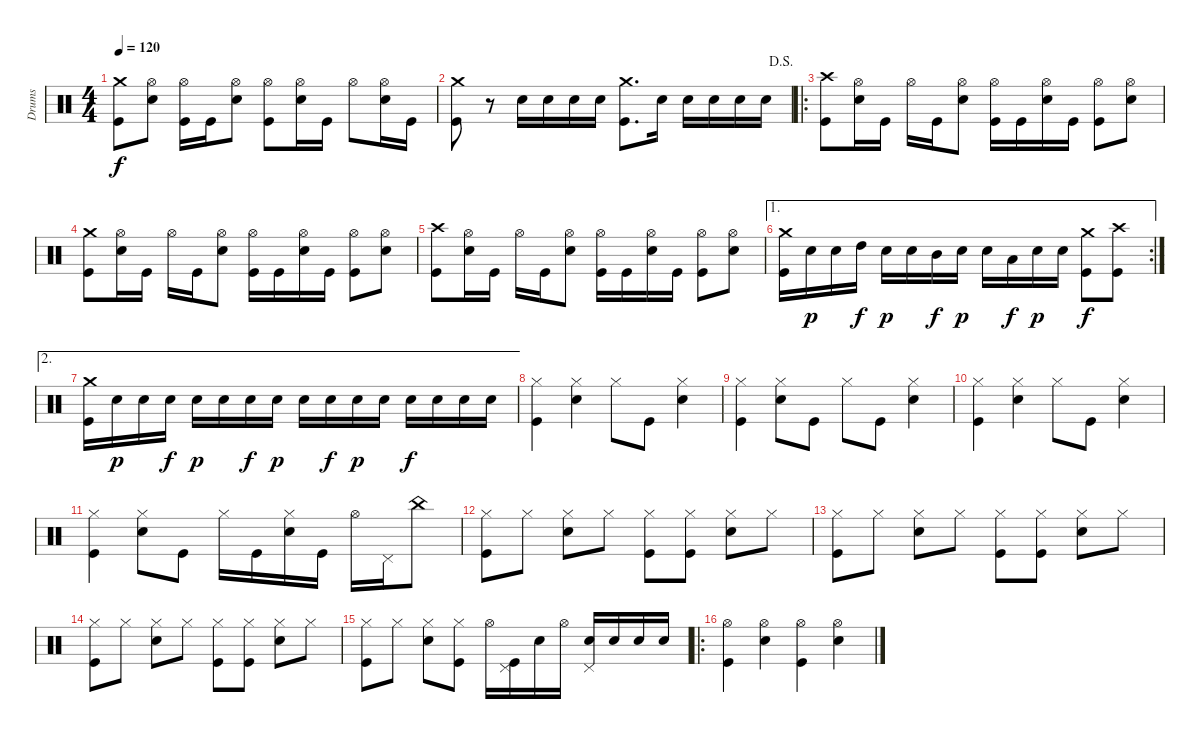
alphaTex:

\bracketExtendMode groupsimilarinstruments
\otherSystemsTrackNameOrientation horizontal
\track ("Drumkit" "Drums") {instrument percussion}
\staff {score}
\articulation defaults
\ts (4 4)
\tempo 120
\clef neutral
\ks c
("Crash medium (hit)" "Kick (hit)").8{dy f} ("Hi-Hat (open)" "Snare (hit) 2").8 ("Hi-Hat (open)" "Kick (hit)").16 "Kick (hit)".16 ("Hi-Hat (open)" "Snare (hit) 2").8 ("Hi-Hat (open)" "Kick (hit)").8 ("Hi-Hat (open)" "Snare (hit) 2").16 "Kick (hit)".16 "Hi-Hat (open)".8 ("Hi-Hat (open)" "Snare (hit) 2").16 "Kick (hit)".16 |
\jump dalsegno
("Crash medium (hit)" "Kick (hit)").8 r.8 "Snare (hit) 2".16 "Snare (hit) 2".16 "Snare (hit) 2".16 "Snare (hit) 2".16 ("Crash medium (hit)" "Kick (hit)").8{d} "Snare (hit) 2".16 "Snare (hit) 2".16 "Snare (hit) 2".16 "Snare (hit) 2".16 "Snare (hit) 2".16 |
\ro
("Crash high (hit)" "Kick (hit)").8 ("Hi-Hat (open)" "Snare (hit) 2").16 "Kick (hit)".16 "Hi-Hat (open)".16 "Kick (hit)".16 ("Hi-Hat (open)" "Snare (hit) 2").8 ("Hi-Hat (open)" "Kick (hit)").16 "Kick (hit)".16 ("Hi-Hat (open)" "Snare (hit) 2").16 "Kick (hit)".16 ("Hi-Hat (open)" "Kick (hit)").8 ("Hi-Hat (open)" "Snare (hit) 2").8 |
("Crash medium (hit)" "Kick (hit)").8 ("Hi-Hat (open)" "Snare (hit) 2").16 "Kick (hit)".16 "Hi-Hat (open)".16 "Kick (hit)".16 ("Hi-Hat (open)" "Snare (hit) 2").8 ("Hi-Hat (open)" "Kick (hit)").16 "Kick (hit)".16 ("Hi-Hat (open)" "Snare (hit) 2").16 "Kick (hit)".16 ("Hi-Hat (open)" "Kick (hit)").8 ("Hi-Hat (open)" "Snare (hit) 2").8 |
("Crash high (hit)" "Kick (hit)").8 ("Hi-Hat (open)" "Snare (hit) 2").16 "Kick (hit)".16 "Hi-Hat (open)".16 "Kick (hit)".16 ("Hi-Hat (open)" "Snare (hit) 2").8 ("Hi-Hat (open)" "Kick (hit)").16 "Kick (hit)".16 ("Hi-Hat (open)" "Snare (hit) 2").16 "Kick (hit)".16 ("Hi-Hat (open)" "Kick (hit)").8 ("Hi-Hat (open)" "Snare (hit) 2").8 |
\ae 1
\rc 2
("Crash medium (hit)" "Kick (hit)").16 "Snare (hit) 2".16{dy p} "Snare (hit) 2".16 "High Tom (hit)".16{dy f} "Snare (hit) 2".16{dy p} "Snare (hit) 2".16 "Mid Tom (hit)".16{dy f} "Snare (hit) 2".16{dy p} "Snare (hit) 2".16 "Low Tom (hit)".16{dy f} "Snare (hit) 2".16{dy p} "Snare (hit) 2".16 ("Crash medium (hit)" "Kick (hit)").8{dy f} ("Crash high (hit)" "Kick (hit)").8 |
\ae 2
("Crash medium (hit)" "Kick (hit)").16 "Snare (hit) 2".16{dy p} "Snare (hit) 2".16 "Snare (hit) 2".16{dy f} "Snare (hit) 2".16{dy p} "Snare (hit) 2".16 "Snare (hit) 2".16{dy f} "Snare (hit) 2".16{dy p} "Snare (hit) 2".16 "Snare (hit) 2".16{dy f} "Snare (hit) 2".16{dy p} "Snare (hit) 2".16 "Snare (hit) 2".16{dy f} "Snare (hit) 2".16 "Snare (hit) 2".16 "Snare (hit) 2".16 |
("Hi-Hat (closed)" "Kick (hit)").4 ("Hi-Hat (closed)" "Snare (hit) 2").4 "Hi-Hat (closed)".8 "Kick (hit)".8 ("Hi-Hat (closed)" "Snare (hit) 2").4 |
("Hi-Hat (closed)" "Kick (hit)").4 ("Hi-Hat (closed)" "Snare (hit) 2").8 "Kick (hit)".8 "Hi-Hat (closed)".8 "Kick (hit)".8 ("Hi-Hat (closed)" "Snare (hit) 2").4 |
("Hi-Hat (closed)" "Kick (hit)").4 ("Hi-Hat (closed)" "Snare (hit) 2").4 "Hi-Hat (closed)".8 "Kick (hit)".8 ("Hi-Hat (closed)" "Snare (hit) 2").4 |
("Hi-Hat (closed)" "Kick (hit)").4 ("Hi-Hat (closed)" "Snare (hit) 2").8 "Kick (hit)".8 "Hi-Hat (closed)".16 "Kick (hit)".16 ("Hi-Hat (closed)" "Snare (hit) 2").16 "Kick (hit)".16 "Hi-Hat (open)".16 "Pedal Hi-Hat (hit)".16 "China (hit)".8 |
("Hi-Hat (closed)" "Kick (hit)").8 "Hi-Hat (closed)".8 ("Hi-Hat (closed)" "Snare (hit) 2").8 "Hi-Hat (closed)".8 ("Hi-Hat (closed)" "Kick (hit)").8 ("Hi-Hat (closed)" "Kick (hit)").8 ("Hi-Hat (closed)" "Snare (hit) 2").8 "Hi-Hat (closed)".8 |
("Hi-Hat (closed)" "Kick (hit)").8 "Hi-Hat (closed)".8 ("Hi-Hat (closed)" "Snare (hit) 2").8 "Hi-Hat (closed)".8 ("Hi-Hat (closed)" "Kick (hit)").8 ("Hi-Hat (closed)" "Kick (hit)").8 ("Hi-Hat (closed)" "Snare (hit) 2").8 "Hi-Hat (closed)".8 |
("Hi-Hat (closed)" "Kick (hit)").8 "Hi-Hat (closed)".8 ("Hi-Hat (closed)" "Snare (hit) 2").8 "Hi-Hat (closed)".8 ("Hi-Hat (closed)" "Kick (hit)").8 ("Hi-Hat (closed)" "Kick (hit)").8 ("Hi-Hat (closed)" "Snare (hit) 2").8 "Hi-Hat (closed)".8 |
("Hi-Hat (closed)" "Kick (hit)").8 "Hi-Hat (closed)".8 ("Hi-Hat (closed)" "Snare (hit) 2").8 ("Hi-Hat (closed)" "Kick (hit)").8 "Hi-Hat (open)".16 ("Kick (hit)" "Pedal Hi-Hat (hit)").16 "Snare (hit) 2".16 "Hi-Hat (open)".16 ("Snare (hit) 2" "Pedal Hi-Hat (hit)").16 "Snare (hit) 2".16 "Snare (hit) 2".16 "Snare (hit) 2".16 |
\ro
("Kick (hit)" "Hi-Hat (open)").4 ("Snare (hit) 2" "Hi-Hat (open)").4 ("Kick (hit)" "Hi-Hat (open)").4 ("Snare (hit) 2" "Hi-Hat (open)").4
